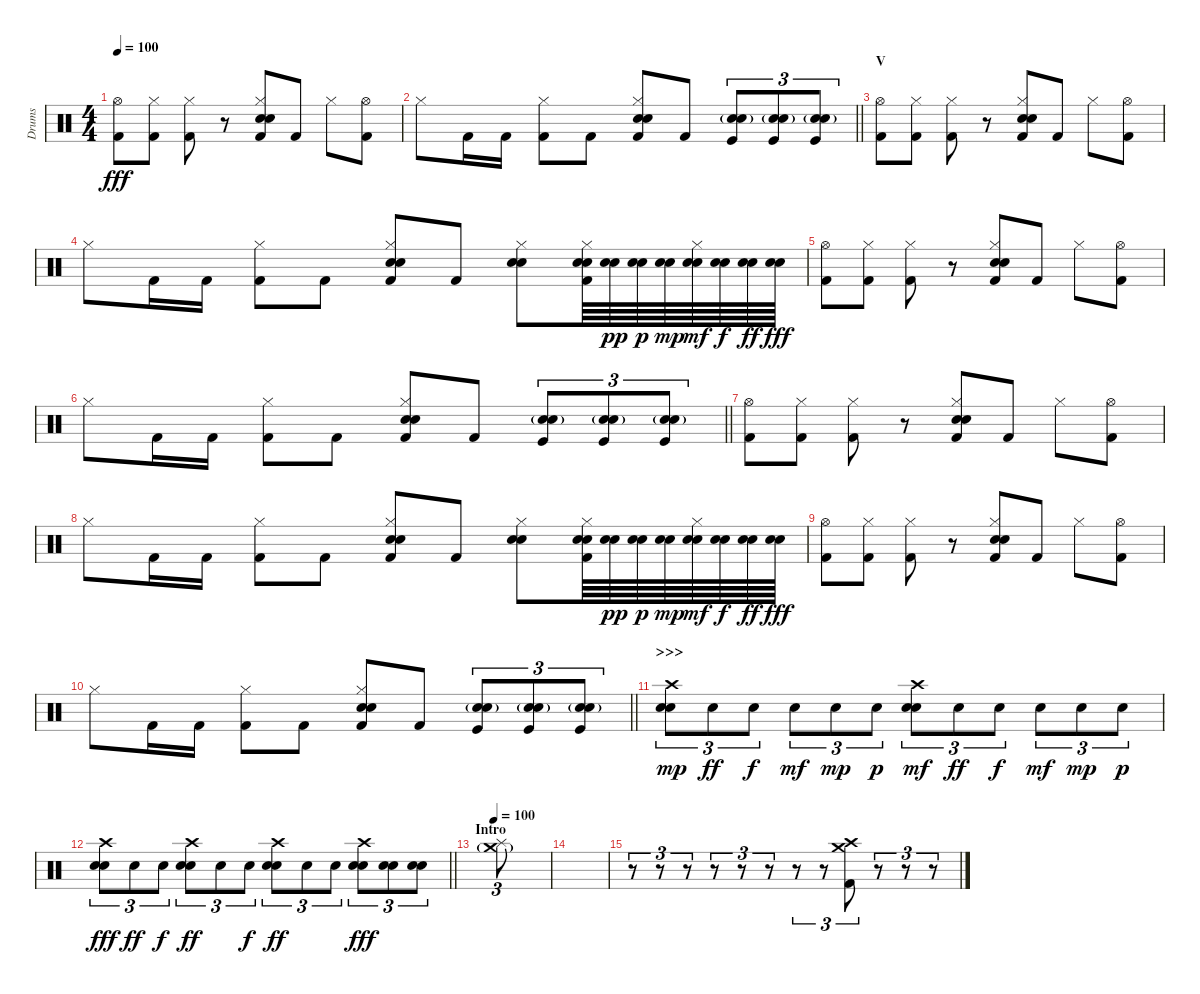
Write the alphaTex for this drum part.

\track ("Drums" "Drums") {instrument percussion}
\staff {score}
\articulation defaults
\ts (4 4)
\tempo 100
\clef neutral
\ks c
("Hi-Hat (open)" "Kick (hit) 2").8{dy fff} ("Hi-Hat (closed)" "Kick (hit) 2").8 ("Hi-Hat (closed)" "Kick (hit) 2").8 r.8 ("Hi-Hat (closed)" "Hand Clap (hit)" "Snare (hit) 2" "Kick (hit) 2").8 "Kick (hit) 2".8 "Hi-Hat (closed)".8 ("Hi-Hat (open)" "Kick (hit) 2").8 |
\barLineRight lightlight "Hi-Hat (closed)".8 "Kick (hit) 2".16 "Kick (hit) 2".16
("Hi-Hat (closed)" "Kick (hit) 2").8 "Kick (hit) 2".8 ("Hi-Hat (closed)" "Hand Clap (hit)" "Snare (hit) 2" "Kick (hit) 2").8 "Kick (hit) 2".8 ("Hand Clap (hit)"{g} "Snare (hit) 2" "Kick (hit)").8{tu (3 2)} ("Hand Clap (hit)"{g} "Snare (hit) 2" "Kick (hit)").8{tu (3 2)} ("Hand Clap (hit)"{g} "Snare (hit) 2" "Kick (hit)").8{tu (3 2)} |
\section ("" "V")
("Hi-Hat (open)" "Kick (hit) 2").8 ("Hi-Hat (closed)" "Kick (hit) 2").8 ("Hi-Hat (closed)" "Kick (hit) 2").8 r.8 ("Hi-Hat (closed)" "Hand Clap (hit)" "Snare (hit) 2" "Kick (hit) 2").8 "Kick (hit) 2".8 "Hi-Hat (closed)".8 ("Hi-Hat (open)" "Kick (hit) 2").8 |
"Hi-Hat (closed)".8 "Kick (hit) 2".16 "Kick (hit) 2".16 ("Hi-Hat (closed)" "Kick (hit) 2").8 "Kick (hit) 2".8 ("Hi-Hat (closed)" "Hand Clap (hit)" "Snare (hit) 2" "Kick (hit) 2").8 "Kick (hit) 2".8 ("Hi-Hat (closed)" "Hand Clap (hit)" "Snare (hit) 2").8 ("Hi-Hat (closed)" "Hand Clap (hit)" "Snare (hit) 2" "Kick (hit) 2").64 ("Hand Clap (hit)" "Snare (hit) 2").64{dy pp} ("Hand Clap (hit)" "Snare (hit) 2").64{dy p} ("Hand Clap (hit)" "Snare (hit) 2").64{dy mp} ("Hi-Hat (closed)" "Hand Clap (hit)" "Snare (hit) 2").64{dy mf} ("Hand Clap (hit)" "Snare (hit) 2").64{dy f} ("Hand Clap (hit)" "Snare (hit) 2").64{dy ff} ("Hand Clap (hit)" "Snare (hit) 2").64{dy fff} |
("Hi-Hat (open)" "Kick (hit) 2").8 ("Hi-Hat (closed)" "Kick (hit) 2").8 ("Hi-Hat (closed)" "Kick (hit) 2").8 r.8 ("Hi-Hat (closed)" "Hand Clap (hit)" "Snare (hit) 2" "Kick (hit) 2").8 "Kick (hit) 2".8 "Hi-Hat (closed)".8 ("Hi-Hat (open)" "Kick (hit) 2").8 |
\barLineRight lightlight "Hi-Hat (closed)".8 "Kick (hit) 2".16 "Kick (hit) 2".16
("Hi-Hat (closed)" "Kick (hit) 2").8 "Kick (hit) 2".8 ("Hi-Hat (closed)" "Hand Clap (hit)" "Snare (hit) 2" "Kick (hit) 2").8 "Kick (hit) 2".8 ("Hand Clap (hit)"{g} "Snare (hit) 2" "Kick (hit)").8{tu (3 2)} ("Hand Clap (hit)"{g} "Snare (hit) 2" "Kick (hit)").8{tu (3 2)} ("Hand Clap (hit)"{g} "Snare (hit) 2" "Kick (hit)").8{tu (3 2)} |
("Hi-Hat (open)" "Kick (hit) 2").8 ("Hi-Hat (closed)" "Kick (hit) 2").8 ("Hi-Hat (closed)" "Kick (hit) 2").8 r.8 ("Hi-Hat (closed)" "Hand Clap (hit)" "Snare (hit) 2" "Kick (hit) 2").8 "Kick (hit) 2".8 "Hi-Hat (closed)".8 ("Hi-Hat (open)" "Kick (hit) 2").8 |
"Hi-Hat (closed)".8 "Kick (hit) 2".16 "Kick (hit) 2".16 ("Hi-Hat (closed)" "Kick (hit) 2").8 "Kick (hit) 2".8 ("Hi-Hat (closed)" "Hand Clap (hit)" "Snare (hit) 2" "Kick (hit) 2").8 "Kick (hit) 2".8 ("Hi-Hat (closed)" "Hand Clap (hit)" "Snare (hit) 2").8 ("Hi-Hat (closed)" "Hand Clap (hit)" "Snare (hit) 2" "Kick (hit) 2").64 ("Hand Clap (hit)" "Snare (hit) 2").64{dy pp} ("Hand Clap (hit)" "Snare (hit) 2").64{dy p} ("Hand Clap (hit)" "Snare (hit) 2").64{dy mp} ("Hi-Hat (closed)" "Hand Clap (hit)" "Snare (hit) 2").64{dy mf} ("Hand Clap (hit)" "Snare (hit) 2").64{dy f} ("Hand Clap (hit)" "Snare (hit) 2").64{dy ff} ("Hand Clap (hit)" "Snare (hit) 2").64{dy fff} |
("Hi-Hat (open)" "Kick (hit) 2").8 ("Hi-Hat (closed)" "Kick (hit) 2").8 ("Hi-Hat (closed)" "Kick (hit) 2").8 r.8 ("Hi-Hat (closed)" "Hand Clap (hit)" "Snare (hit) 2" "Kick (hit) 2").8 "Kick (hit) 2".8 "Hi-Hat (closed)".8 ("Hi-Hat (open)" "Kick (hit) 2").8 |
\barLineRight lightlight "Hi-Hat (closed)".8 "Kick (hit) 2".16 "Kick (hit) 2".16
("Hi-Hat (closed)" "Kick (hit) 2").8 "Kick (hit) 2".8 ("Hi-Hat (closed)" "Hand Clap (hit)" "Snare (hit) 2" "Kick (hit) 2").8 "Kick (hit) 2".8 ("Hand Clap (hit)"{g} "Snare (hit) 2" "Kick (hit)").8{tu (3 2)} ("Hand Clap (hit)"{g} "Snare (hit) 2" "Kick (hit)").8{tu (3 2)} ("Hand Clap (hit)"{g} "Snare (hit) 2" "Kick (hit)").8{tu (3 2)} |
\section ("" ">>>")
("Crash high (hit)" "Snare (hit) 2" "Electric Snare (hit)").8{tu (3 2) dy mp} "Snare (hit) 2".8{tu (3 2) dy ff} "Snare (hit) 2".8{tu (3 2) dy f} "Snare (hit) 2".8{tu (3 2) dy mf} "Snare (hit) 2".8{tu (3 2) dy mp} "Snare (hit) 2".8{tu (3 2) dy p} ("Crash high (hit)" "Snare (hit) 2" "Electric Snare (hit)").8{tu (3 2) dy mf} "Snare (hit) 2".8{tu (3 2) dy ff} "Snare (hit) 2".8{tu (3 2) dy f} "Snare (hit) 2".8{tu (3 2) dy mf} "Snare (hit) 2".8{tu (3 2) dy mp} "Snare (hit) 2".8{tu (3 2) dy p} |
\barLineRight lightlight
("Crash high (hit)" "Snare (hit) 2" "Electric Snare (hit)").8{tu (3 2) dy fff} "Snare (hit) 2".8{tu (3 2) dy ff} "Snare (hit) 2".8{tu (3 2) dy f} ("Crash high (hit)" "Snare (hit) 2" "Electric Snare (hit)").8{tu (3 2) dy ff} "Snare (hit) 2".8{tu (3 2)} "Snare (hit) 2".8{tu (3 2) dy f} ("Crash high (hit)" "Snare (hit) 2" "Electric Snare (hit)").8{tu (3 2) dy ff} "Snare (hit) 2".8{tu (3 2)} "Snare (hit) 2".8{tu (3 2)} ("Crash high (hit)" "Snare (hit) 2" "Electric Snare (hit)").8{tu (3 2) dy fff} ("Snare (hit) 2" "Electric Snare (hit)").8{tu (3 2)} ("Snare (hit) 2" "Electric Snare (hit)").8{tu (3 2)} |
\section ("" "Intro")
\tempo 100
("Splash (hit)" "Crash medium (hit)"{g}).8{tu (3 2)} |
|
r.8{tu (3 2)} r.8{tu (3 2)} r.8{tu (3 2)} r.8{tu (3 2)} r.8{tu (3 2)} r.8{tu (3 2)} r.8{tu (3 2)} r.8{tu (3 2)} ("Crash high (hit)" "Crash medium (hit)" "Kick (hit) 2").8{tu (3 2)} r.8{tu (3 2)} r.8{tu (3 2)} r.8{tu (3 2)}
